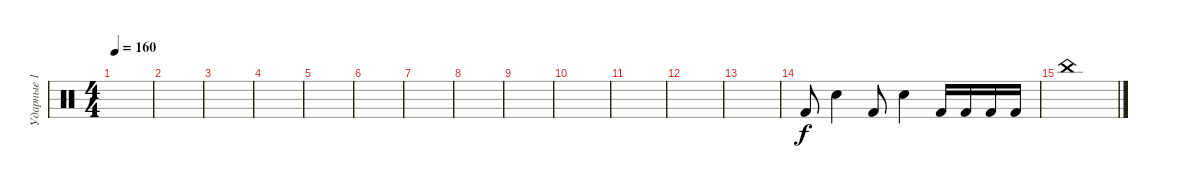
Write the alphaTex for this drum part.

\track ("Ударные 1" "Ударные 1") {instrument percussion}
\staff {score}
\articulation defaults
\ts (4 4)
\tempo 160
\clef neutral
\ks c
|
|
|
|
|
|
|
|
|
|
|
|
|
"Kick (hit) 2".8 "Hand Clap (hit)".4 "Kick (hit) 2".8 "Hand Clap (hit)".4 "Kick (hit) 2".16 "Kick (hit) 2".16 "Kick (hit) 2".16 "Kick (hit) 2".16 |
"China (hit)".1
